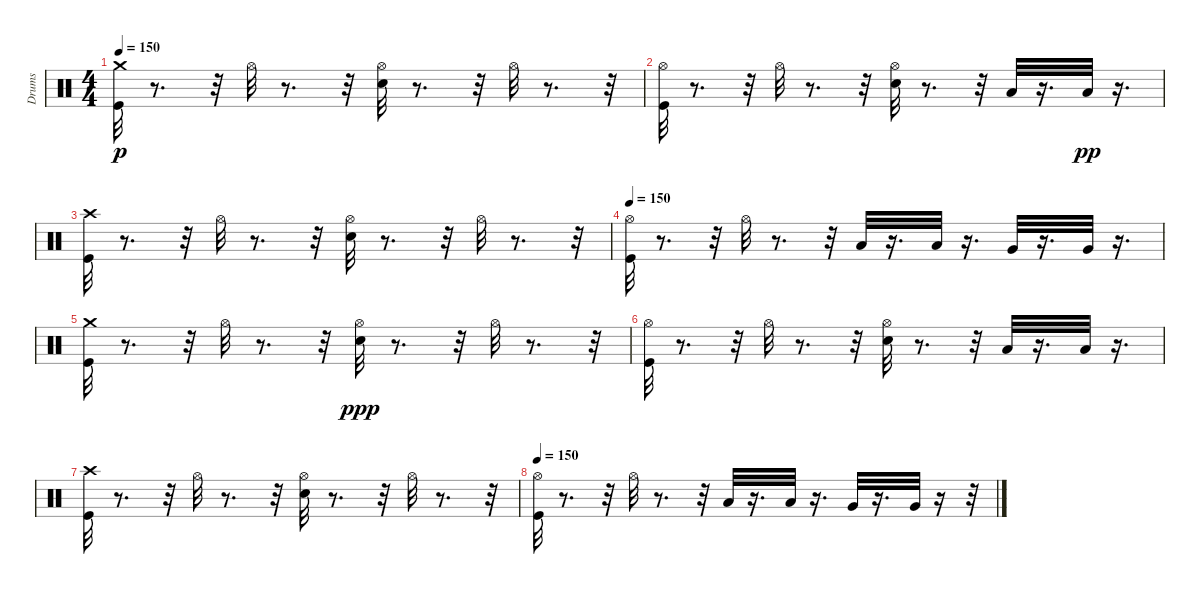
\track ("Drums" "Drums") {instrument percussion}
\staff {score}
\articulation defaults
\ts (4 4)
\tempo 150
\clef neutral
\ks c
("Crash medium (hit)" "Kick (hit)").32{dy p} r.8{d} r.32 "Hi-Hat (open)".32 r.8{d} r.32 ("Hi-Hat (open)" "Electric Snare (hit)").32 r.8{d} r.32 "Hi-Hat (open)".32 r.8{d} r.32 |
("Hi-Hat (open)" "Kick (hit)").32 r.8{d} r.32 "Hi-Hat (open)".32 r.8{d} r.32 ("Hi-Hat (open)" "Electric Snare (hit)").32 r.8{d} r.32 "Low Tom (hit)".32 r.16{d} "Low Tom (hit)".32{dy pp} r.16{d} |
("Kick (hit)" "Crash high (hit)").32 r.8{d} r.32 "Hi-Hat (open)".32 r.8{d} r.32 ("Hi-Hat (open)" "Electric Snare (hit)").32 r.8{d} r.32 "Hi-Hat (open)".32 r.8{d} r.32 |
\tempo 150
("Hi-Hat (open)" "Kick (hit)").32 r.8{d} r.32 "Hi-Hat (open)".32 r.8{d} r.32 "Low Tom (hit)".32 r.16{d} "Low Tom (hit)".32 r.16{d} "Very Low Tom (hit)".32 r.16{d} "Very Low Tom (hit)".32 r.16{d} |
("Crash medium (hit)" "Kick (hit)").32 r.8{d} r.32 "Hi-Hat (open)".32 r.8{d} r.32 ("Hi-Hat (open)" "Electric Snare (hit)").32{dy ppp} r.8{d} r.32 "Hi-Hat (open)".32 r.8{d} r.32 |
("Hi-Hat (open)" "Kick (hit)").32 r.8{d} r.32 "Hi-Hat (open)".32 r.8{d} r.32 ("Hi-Hat (open)" "Electric Snare (hit)").32 r.8{d} r.32 "Low Tom (hit)".32 r.16{d} "Low Tom (hit)".32 r.16{d} |
("Kick (hit)" "Crash high (hit)").32 r.8{d} r.32 "Hi-Hat (open)".32 r.8{d} r.32 ("Hi-Hat (open)" "Electric Snare (hit)").32 r.8{d} r.32 "Hi-Hat (open)".32 r.8{d} r.32 |
\tempo 150
("Hi-Hat (open)" "Kick (hit)").32 r.8{d} r.32 "Hi-Hat (open)".32 r.8{d} r.32 "Low Tom (hit)".32 r.16{d} "Low Tom (hit)".32 r.16{d} "Very Low Tom (hit)".32 r.16{d} "Very Low Tom (hit)".32 r.16 r.32
